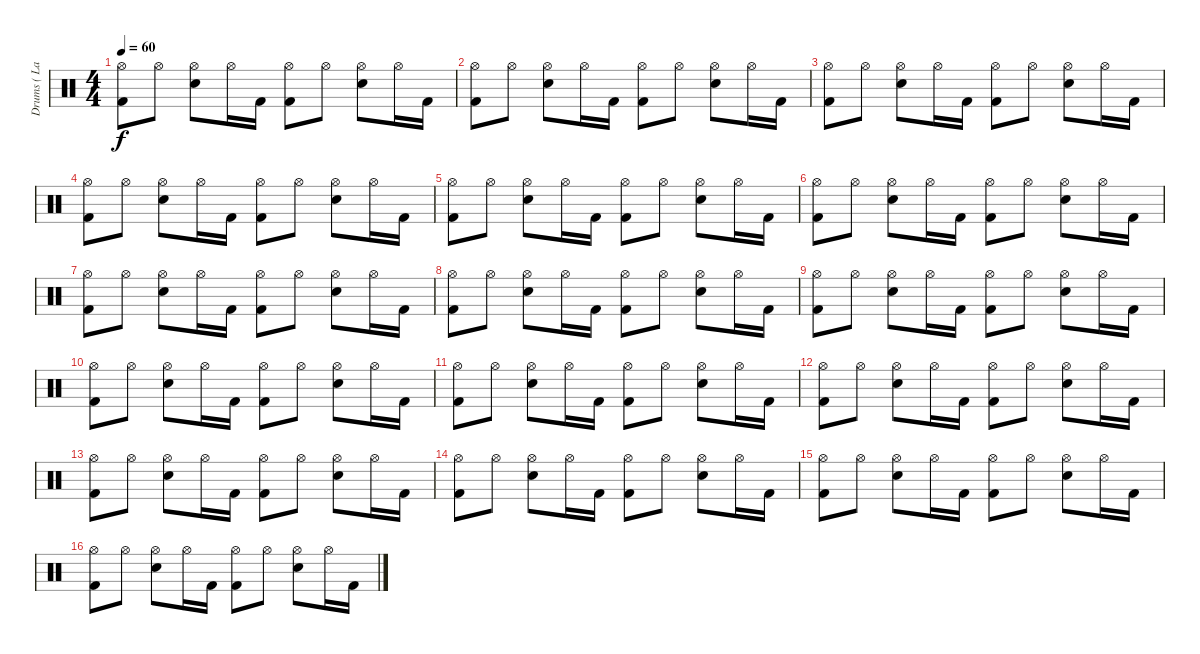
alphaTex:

\track ("Drums ( Lars )" "Drums ( La") {instrument percussion}
\staff {score}
\articulation defaults
\ts (4 4)
\tempo 60
\clef neutral
\ks c
("Kick (hit) 2" "Hi-Hat (open)").8{dy f} "Hi-Hat (open)".8 ("Snare (hit) 2" "Hi-Hat (open)").8 "Hi-Hat (open)".16 "Kick (hit) 2".16 ("Kick (hit) 2" "Hi-Hat (open)").8 "Hi-Hat (open)".8 ("Snare (hit) 2" "Hi-Hat (open)").8 "Hi-Hat (open)".16 "Kick (hit) 2".16 |
("Kick (hit) 2" "Hi-Hat (open)").8 "Hi-Hat (open)".8 ("Snare (hit) 2" "Hi-Hat (open)").8 "Hi-Hat (open)".16 "Kick (hit) 2".16 ("Kick (hit) 2" "Hi-Hat (open)").8 "Hi-Hat (open)".8 ("Snare (hit) 2" "Hi-Hat (open)").8 "Hi-Hat (open)".16 "Kick (hit) 2".16 |
("Kick (hit) 2" "Hi-Hat (open)").8 "Hi-Hat (open)".8 ("Snare (hit) 2" "Hi-Hat (open)").8 "Hi-Hat (open)".16 "Kick (hit) 2".16 ("Kick (hit) 2" "Hi-Hat (open)").8 "Hi-Hat (open)".8 ("Snare (hit) 2" "Hi-Hat (open)").8 "Hi-Hat (open)".16 "Kick (hit) 2".16 |
("Kick (hit) 2" "Hi-Hat (open)").8 "Hi-Hat (open)".8 ("Snare (hit) 2" "Hi-Hat (open)").8 "Hi-Hat (open)".16 "Kick (hit) 2".16 ("Kick (hit) 2" "Hi-Hat (open)").8 "Hi-Hat (open)".8 ("Snare (hit) 2" "Hi-Hat (open)").8 "Hi-Hat (open)".16 "Kick (hit) 2".16 |
("Kick (hit) 2" "Hi-Hat (open)").8 "Hi-Hat (open)".8 ("Snare (hit) 2" "Hi-Hat (open)").8 "Hi-Hat (open)".16 "Kick (hit) 2".16 ("Kick (hit) 2" "Hi-Hat (open)").8 "Hi-Hat (open)".8 ("Snare (hit) 2" "Hi-Hat (open)").8 "Hi-Hat (open)".16 "Kick (hit) 2".16 |
("Kick (hit) 2" "Hi-Hat (open)").8 "Hi-Hat (open)".8 ("Snare (hit) 2" "Hi-Hat (open)").8 "Hi-Hat (open)".16 "Kick (hit) 2".16 ("Kick (hit) 2" "Hi-Hat (open)").8 "Hi-Hat (open)".8 ("Snare (hit) 2" "Hi-Hat (open)").8 "Hi-Hat (open)".16 "Kick (hit) 2".16 |
("Kick (hit) 2" "Hi-Hat (open)").8 "Hi-Hat (open)".8 ("Snare (hit) 2" "Hi-Hat (open)").8 "Hi-Hat (open)".16 "Kick (hit) 2".16 ("Kick (hit) 2" "Hi-Hat (open)").8 "Hi-Hat (open)".8 ("Snare (hit) 2" "Hi-Hat (open)").8 "Hi-Hat (open)".16 "Kick (hit) 2".16 |
("Kick (hit) 2" "Hi-Hat (open)").8 "Hi-Hat (open)".8 ("Snare (hit) 2" "Hi-Hat (open)").8 "Hi-Hat (open)".16 "Kick (hit) 2".16 ("Kick (hit) 2" "Hi-Hat (open)").8 "Hi-Hat (open)".8 ("Snare (hit) 2" "Hi-Hat (open)").8 "Hi-Hat (open)".16 "Kick (hit) 2".16 |
("Kick (hit) 2" "Hi-Hat (open)").8 "Hi-Hat (open)".8 ("Snare (hit) 2" "Hi-Hat (open)").8 "Hi-Hat (open)".16 "Kick (hit) 2".16 ("Kick (hit) 2" "Hi-Hat (open)").8 "Hi-Hat (open)".8 ("Snare (hit) 2" "Hi-Hat (open)").8 "Hi-Hat (open)".16 "Kick (hit) 2".16 |
("Kick (hit) 2" "Hi-Hat (open)").8 "Hi-Hat (open)".8 ("Snare (hit) 2" "Hi-Hat (open)").8 "Hi-Hat (open)".16 "Kick (hit) 2".16 ("Kick (hit) 2" "Hi-Hat (open)").8 "Hi-Hat (open)".8 ("Snare (hit) 2" "Hi-Hat (open)").8 "Hi-Hat (open)".16 "Kick (hit) 2".16 |
("Kick (hit) 2" "Hi-Hat (open)").8 "Hi-Hat (open)".8 ("Snare (hit) 2" "Hi-Hat (open)").8 "Hi-Hat (open)".16 "Kick (hit) 2".16 ("Kick (hit) 2" "Hi-Hat (open)").8 "Hi-Hat (open)".8 ("Snare (hit) 2" "Hi-Hat (open)").8 "Hi-Hat (open)".16 "Kick (hit) 2".16 |
("Kick (hit) 2" "Hi-Hat (open)").8 "Hi-Hat (open)".8 ("Snare (hit) 2" "Hi-Hat (open)").8 "Hi-Hat (open)".16 "Kick (hit) 2".16 ("Kick (hit) 2" "Hi-Hat (open)").8 "Hi-Hat (open)".8 ("Snare (hit) 2" "Hi-Hat (open)").8 "Hi-Hat (open)".16 "Kick (hit) 2".16 |
("Kick (hit) 2" "Hi-Hat (open)").8 "Hi-Hat (open)".8 ("Snare (hit) 2" "Hi-Hat (open)").8 "Hi-Hat (open)".16 "Kick (hit) 2".16 ("Kick (hit) 2" "Hi-Hat (open)").8 "Hi-Hat (open)".8 ("Snare (hit) 2" "Hi-Hat (open)").8 "Hi-Hat (open)".16 "Kick (hit) 2".16 |
("Kick (hit) 2" "Hi-Hat (open)").8 "Hi-Hat (open)".8 ("Snare (hit) 2" "Hi-Hat (open)").8 "Hi-Hat (open)".16 "Kick (hit) 2".16 ("Kick (hit) 2" "Hi-Hat (open)").8 "Hi-Hat (open)".8 ("Snare (hit) 2" "Hi-Hat (open)").8 "Hi-Hat (open)".16 "Kick (hit) 2".16 |
("Kick (hit) 2" "Hi-Hat (open)").8 "Hi-Hat (open)".8 ("Snare (hit) 2" "Hi-Hat (open)").8 "Hi-Hat (open)".16 "Kick (hit) 2".16 ("Kick (hit) 2" "Hi-Hat (open)").8 "Hi-Hat (open)".8 ("Snare (hit) 2" "Hi-Hat (open)").8 "Hi-Hat (open)".16 "Kick (hit) 2".16 |
("Kick (hit) 2" "Hi-Hat (open)").8 "Hi-Hat (open)".8 ("Snare (hit) 2" "Hi-Hat (open)").8 "Hi-Hat (open)".16 "Kick (hit) 2".16 ("Kick (hit) 2" "Hi-Hat (open)").8 "Hi-Hat (open)".8 ("Snare (hit) 2" "Hi-Hat (open)").8 "Hi-Hat (open)".16 "Kick (hit) 2".16
